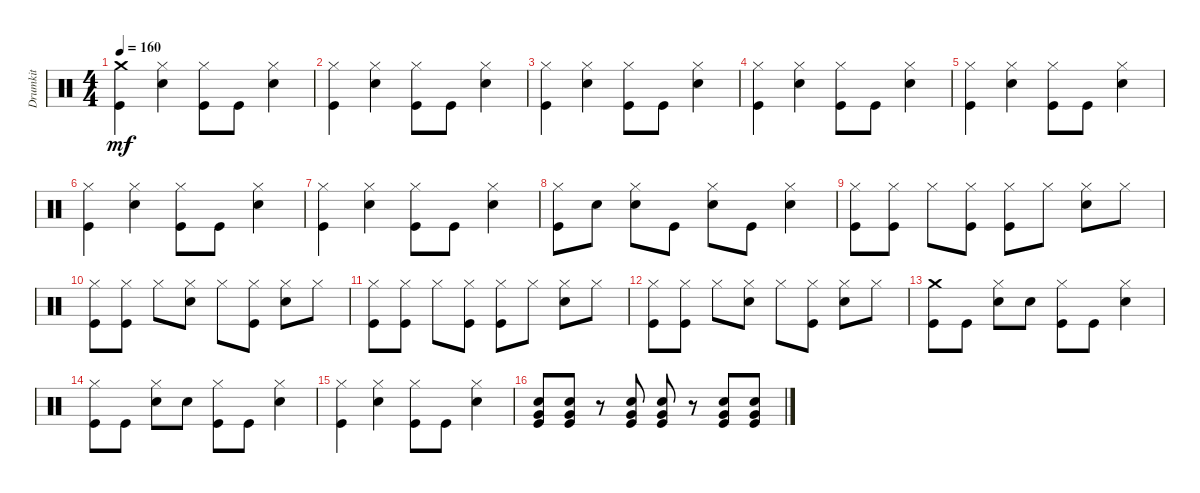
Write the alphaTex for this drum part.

\track ("Drumkit" "Drumkit") {instrument percussion}
\staff {score}
\articulation defaults
\ts (4 4)
\tempo 160
\clef neutral
\ks c
("Kick (hit)" "Crash medium (hit)").4{dy mf} ("Hi-Hat (closed)" "Snare (hit) 2").4 ("Kick (hit)" "Hi-Hat (closed)").8 "Kick (hit)".8 ("Snare (hit) 2" "Hi-Hat (closed)").4 |
("Kick (hit)" "Hi-Hat (closed)").4 ("Hi-Hat (closed)" "Snare (hit) 2").4 ("Kick (hit)" "Hi-Hat (closed)").8 "Kick (hit)".8 ("Snare (hit) 2" "Hi-Hat (closed)").4 |
("Kick (hit)" "Hi-Hat (closed)").4 ("Hi-Hat (closed)" "Snare (hit) 2").4 ("Kick (hit)" "Hi-Hat (closed)").8 "Kick (hit)".8 ("Snare (hit) 2" "Hi-Hat (closed)").4 |
("Kick (hit)" "Hi-Hat (closed)").4 ("Hi-Hat (closed)" "Snare (hit) 2").4 ("Kick (hit)" "Hi-Hat (closed)").8 "Kick (hit)".8 ("Snare (hit) 2" "Hi-Hat (closed)").4 |
("Kick (hit)" "Hi-Hat (closed)").4 ("Hi-Hat (closed)" "Snare (hit) 2").4 ("Kick (hit)" "Hi-Hat (closed)").8 "Kick (hit)".8 ("Snare (hit) 2" "Hi-Hat (closed)").4 |
("Kick (hit)" "Hi-Hat (closed)").4 ("Hi-Hat (closed)" "Snare (hit) 2").4 ("Kick (hit)" "Hi-Hat (closed)").8 "Kick (hit)".8 ("Snare (hit) 2" "Hi-Hat (closed)").4 |
("Kick (hit)" "Hi-Hat (closed)").4 ("Hi-Hat (closed)" "Snare (hit) 2").4 ("Kick (hit)" "Hi-Hat (closed)").8 "Kick (hit)".8 ("Snare (hit) 2" "Hi-Hat (closed)").4 |
("Kick (hit)" "Hi-Hat (closed)").8 "Snare (hit) 2".8 ("Snare (hit) 2" "Hi-Hat (closed)").8 "Kick (hit)".8 ("Snare (hit) 2" "Hi-Hat (closed)").8 "Kick (hit)".8 ("Snare (hit) 2" "Hi-Hat (closed)").4 |
("Kick (hit)" "Hi-Hat (closed)").8 ("Kick (hit)" "Hi-Hat (closed)").8 "Hi-Hat (closed)".8 ("Hi-Hat (closed)" "Kick (hit)").8 ("Hi-Hat (closed)" "Kick (hit)").8 "Hi-Hat (closed)".8 ("Snare (hit) 2" "Hi-Hat (closed)").8 "Hi-Hat (closed)".8 |
("Kick (hit)" "Hi-Hat (closed)").8 ("Kick (hit)" "Hi-Hat (closed)").8 "Hi-Hat (closed)".8 ("Hi-Hat (closed)" "Snare (hit) 2").8 "Hi-Hat (closed)".8 ("Hi-Hat (closed)" "Kick (hit)").8 ("Snare (hit) 2" "Hi-Hat (closed)").8 "Hi-Hat (closed)".8 |
("Kick (hit)" "Hi-Hat (closed)").8 ("Kick (hit)" "Hi-Hat (closed)").8 "Hi-Hat (closed)".8 ("Hi-Hat (closed)" "Kick (hit)").8 ("Hi-Hat (closed)" "Kick (hit)").8 "Hi-Hat (closed)".8 ("Snare (hit) 2" "Hi-Hat (closed)").8 "Hi-Hat (closed)".8 |
("Kick (hit)" "Hi-Hat (closed)").8 ("Kick (hit)" "Hi-Hat (closed)").8 "Hi-Hat (closed)".8 ("Hi-Hat (closed)" "Snare (hit) 2").8 "Hi-Hat (closed)".8 ("Hi-Hat (closed)" "Kick (hit)").8 ("Snare (hit) 2" "Hi-Hat (closed)").8 "Hi-Hat (closed)".8 |
("Crash medium (hit)" "Kick (hit)").8 "Kick (hit)".8 ("Snare (hit) 2" "Hi-Hat (closed)").8 "Snare (hit) 2".8 ("Kick (hit)" "Hi-Hat (closed)").8 "Kick (hit)".8 ("Snare (hit) 2" "Hi-Hat (closed)").4 |
("Kick (hit)" "Hi-Hat (closed)").8 "Kick (hit)".8 ("Snare (hit) 2" "Hi-Hat (closed)").8 "Snare (hit) 2".8 ("Kick (hit)" "Hi-Hat (closed)").8 "Kick (hit)".8 ("Snare (hit) 2" "Hi-Hat (closed)").4 |
("Kick (hit)" "Hi-Hat (closed)").4 ("Hi-Hat (closed)" "Snare (hit) 2").4 ("Kick (hit)" "Hi-Hat (closed)").8 "Kick (hit)".8 ("Snare (hit) 2" "Hi-Hat (closed)").4 |
("Kick (hit)" "Very Low Tom (hit)" "Snare (hit) 2").8 ("Kick (hit)" "Very Low Tom (hit)" "Snare (hit) 2").8 r.8 ("Kick (hit)" "Very Low Tom (hit)" "Snare (hit) 2").8 ("Kick (hit)" "Very Low Tom (hit)" "Snare (hit) 2").8 r.8 ("Kick (hit)" "Very Low Tom (hit)" "Snare (hit) 2").8 ("Kick (hit)" "Very Low Tom (hit)" "Snare (hit) 2").8
